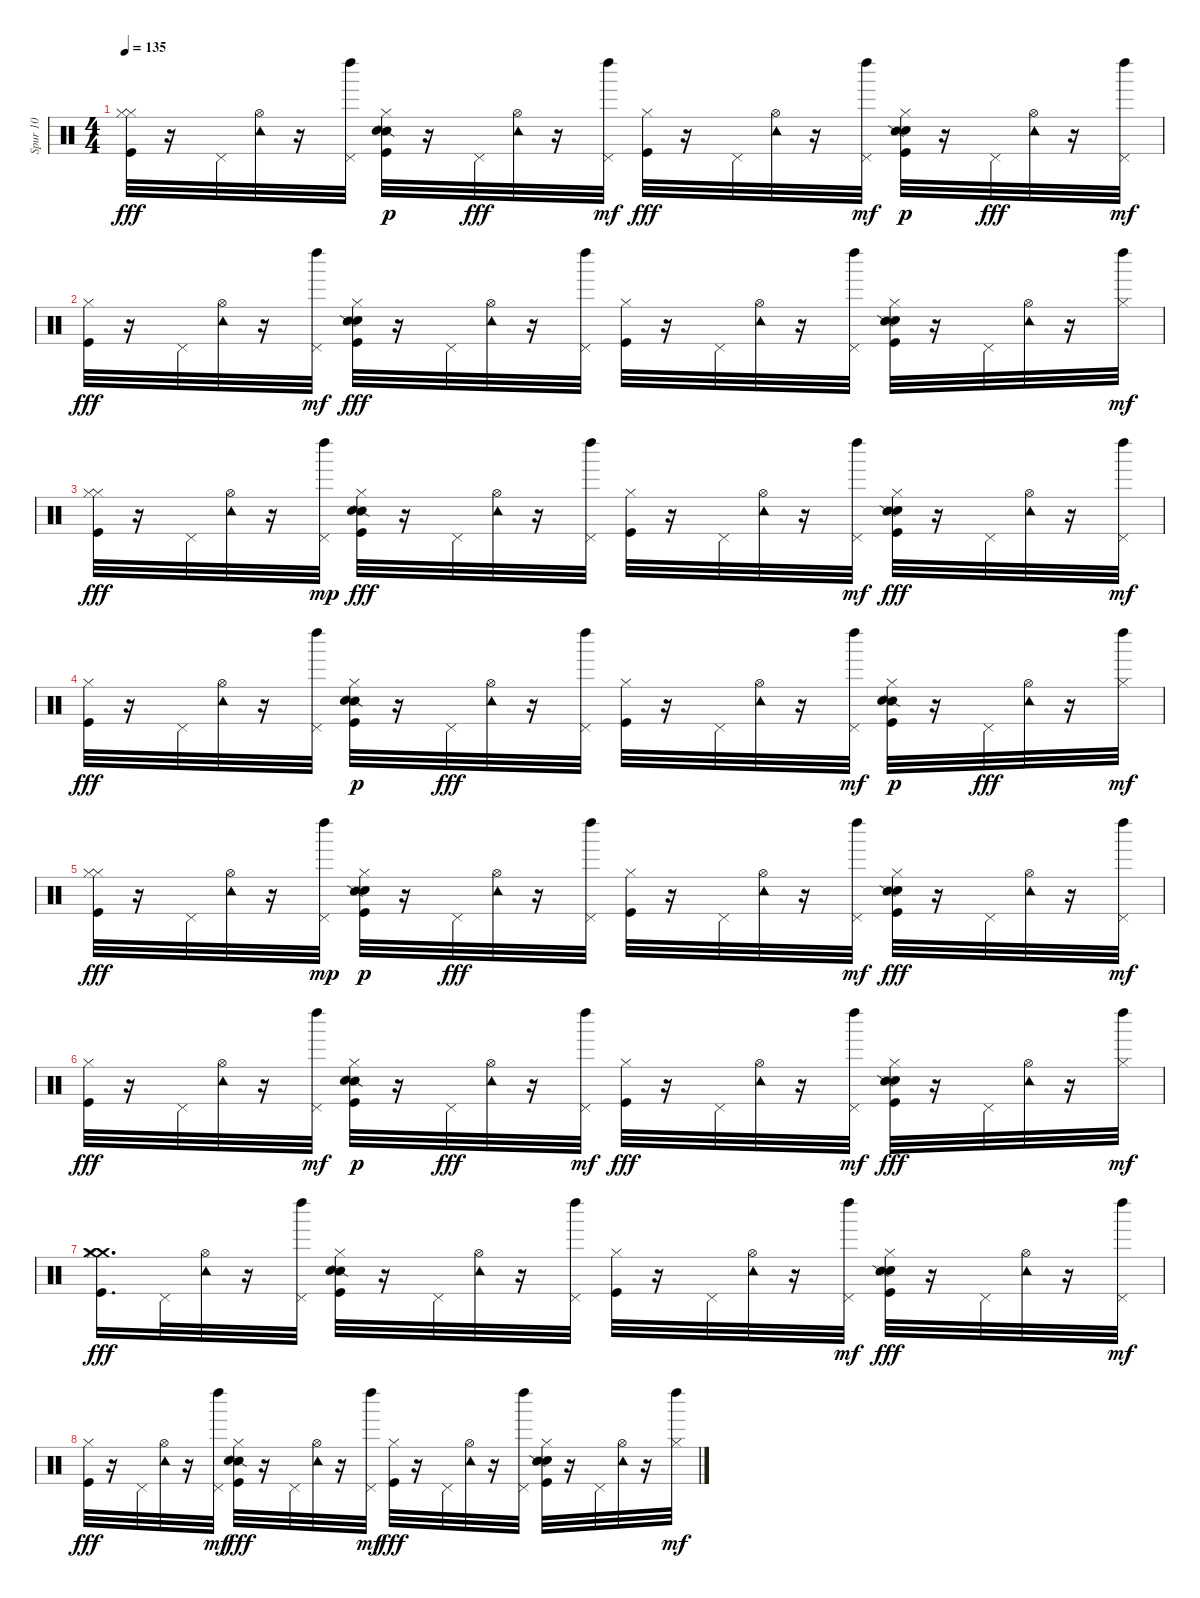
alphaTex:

\track ("Spur 10" "Spur 10") {instrument percussion}
\staff {score}
\articulation defaults
\ts (4 4)
\tempo 135
\clef neutral
\ks c
("Hi-Hat (closed)" "Kick (hit)" "Hi-Hat (closed)").32{dy fff} r.16 "Pedal Hi-Hat (hit)".32 ("Tambourine (hit)" "Hi-Hat (open)").32 r.16 ("Left Maraca (hit)" "Pedal Hi-Hat (hit)").32 ("Hi-Hat (closed)" "Snare (side stick) 2" "Kick (hit)" "Hand Clap (hit)").32{dy p} r.16 "Pedal Hi-Hat (hit)".32{dy fff} ("Tambourine (hit)" "Hi-Hat (open)").32 r.16 ("Pedal Hi-Hat (hit)" "Left Maraca (hit)").32{dy mf} ("Kick (hit)" "Hi-Hat (closed)").32{dy fff} r.16 "Pedal Hi-Hat (hit)".32 ("Tambourine (hit)" "Hi-Hat (open)").32 r.16 ("Pedal Hi-Hat (hit)" "Left Maraca (hit)").32{dy mf} ("Kick (hit)" "Hi-Hat (closed)" "Hand Clap (hit)" "Snare (side stick) 2").32{dy p} r.16 "Pedal Hi-Hat (hit)".32{dy fff} ("Hi-Hat (open)" "Tambourine (hit)").32 r.16 ("Left Maraca (hit)" "Pedal Hi-Hat (hit)").32{dy mf} |
("Hi-Hat (closed)" "Kick (hit)").32{dy fff} r.16 "Pedal Hi-Hat (hit)".32 ("Hi-Hat (open)" "Tambourine (hit)").32 r.16 ("Pedal Hi-Hat (hit)" "Left Maraca (hit)").32{dy mf} ("Hand Clap (hit)" "Kick (hit)" "Hi-Hat (closed)" "Snare (side stick) 2").32{dy fff} r.16 "Pedal Hi-Hat (hit)".32 ("Hi-Hat (open)" "Tambourine (hit)").32 r.16 ("Left Maraca (hit)" "Pedal Hi-Hat (hit)").32 ("Kick (hit)" "Hi-Hat (closed)").32 r.16 "Pedal Hi-Hat (hit)".32 ("Tambourine (hit)" "Hi-Hat (open)").32 r.16 ("Left Maraca (hit)" "Pedal Hi-Hat (hit)").32 ("Hand Clap (hit)" "Hi-Hat (closed)" "Snare (side stick) 2" "Kick (hit)").32 r.16 "Pedal Hi-Hat (hit)".32 ("Tambourine (hit)" "Hi-Hat (open)").32 r.16 ("Hi-Hat (closed)" "Left Maraca (hit)").32{dy mf} |
("Kick (hit)" "Hi-Hat (closed)" "Hi-Hat (closed)").32{dy fff} r.16 "Pedal Hi-Hat (hit)".32 ("Hi-Hat (open)" "Tambourine (hit)").32 r.16 ("Pedal Hi-Hat (hit)" "Left Maraca (hit)").32{dy mp} ("Snare (side stick) 2" "Hand Clap (hit)" "Hi-Hat (closed)" "Kick (hit)").32{dy fff} r.16 "Pedal Hi-Hat (hit)".32 ("Tambourine (hit)" "Hi-Hat (open)").32 r.16 ("Left Maraca (hit)" "Pedal Hi-Hat (hit)").32 ("Kick (hit)" "Hi-Hat (closed)").32 r.16 "Pedal Hi-Hat (hit)".32 ("Hi-Hat (open)" "Tambourine (hit)").32 r.16 ("Pedal Hi-Hat (hit)" "Left Maraca (hit)").32{dy mf} ("Hand Clap (hit)" "Snare (side stick) 2" "Kick (hit)" "Hi-Hat (closed)").32{dy fff} r.16 "Pedal Hi-Hat (hit)".32 ("Tambourine (hit)" "Hi-Hat (open)").32 r.16 ("Pedal Hi-Hat (hit)" "Left Maraca (hit)").32{dy mf} |
("Hi-Hat (closed)" "Kick (hit)").32{dy fff} r.16 "Pedal Hi-Hat (hit)".32 ("Tambourine (hit)" "Hi-Hat (open)").32 r.16 ("Left Maraca (hit)" "Pedal Hi-Hat (hit)").32 ("Snare (side stick) 2" "Kick (hit)" "Hi-Hat (closed)" "Hand Clap (hit)").32{dy p} r.16 "Pedal Hi-Hat (hit)".32{dy fff} ("Tambourine (hit)" "Hi-Hat (open)").32 r.16 ("Left Maraca (hit)" "Pedal Hi-Hat (hit)").32 ("Kick (hit)" "Hi-Hat (closed)").32 r.16 "Pedal Hi-Hat (hit)".32 ("Tambourine (hit)" "Hi-Hat (open)").32 r.16 ("Pedal Hi-Hat (hit)" "Left Maraca (hit)").32{dy mf} ("Snare (side stick) 2" "Kick (hit)" "Hi-Hat (closed)" "Hand Clap (hit)").32{dy p} r.16 "Pedal Hi-Hat (hit)".32{dy fff} ("Hi-Hat (open)" "Tambourine (hit)").32 r.16 ("Hi-Hat (closed)" "Left Maraca (hit)").32{dy mf} |
("Hi-Hat (closed)" "Kick (hit)" "Hi-Hat (closed)").32{dy fff} r.16 "Pedal Hi-Hat (hit)".32 ("Tambourine (hit)" "Hi-Hat (open)").32 r.16 ("Pedal Hi-Hat (hit)" "Left Maraca (hit)").32{dy mp} ("Kick (hit)" "Hi-Hat (closed)" "Hand Clap (hit)" "Snare (side stick) 2").32{dy p} r.16 "Pedal Hi-Hat (hit)".32{dy fff} ("Hi-Hat (open)" "Tambourine (hit)").32 r.16 ("Left Maraca (hit)" "Pedal Hi-Hat (hit)").32 ("Hi-Hat (closed)" "Kick (hit)").32 r.16 "Pedal Hi-Hat (hit)".32 ("Hi-Hat (open)" "Tambourine (hit)").32 r.16 ("Pedal Hi-Hat (hit)" "Left Maraca (hit)").32{dy mf} ("Kick (hit)" "Hand Clap (hit)" "Hi-Hat (closed)" "Snare (side stick) 2").32{dy fff} r.16 "Pedal Hi-Hat (hit)".32 ("Hi-Hat (open)" "Tambourine (hit)").32 r.16 ("Left Maraca (hit)" "Pedal Hi-Hat (hit)").32{dy mf} |
("Hi-Hat (closed)" "Kick (hit)").32{dy fff} r.16 "Pedal Hi-Hat (hit)".32 ("Tambourine (hit)" "Hi-Hat (open)").32 r.16 ("Pedal Hi-Hat (hit)" "Left Maraca (hit)").32{dy mf} ("Snare (side stick) 2" "Hi-Hat (closed)" "Kick (hit)" "Hand Clap (hit)").32{dy p} r.16 "Pedal Hi-Hat (hit)".32{dy fff} ("Tambourine (hit)" "Hi-Hat (open)").32 r.16 ("Pedal Hi-Hat (hit)" "Left Maraca (hit)").32{dy mf} ("Hi-Hat (closed)" "Kick (hit)").32{dy fff} r.16 "Pedal Hi-Hat (hit)".32 ("Hi-Hat (open)" "Tambourine (hit)").32 r.16 ("Pedal Hi-Hat (hit)" "Left Maraca (hit)").32{dy mf} ("Kick (hit)" "Hand Clap (hit)" "Snare (side stick) 2" "Hi-Hat (closed)").32{dy fff} r.16 "Pedal Hi-Hat (hit)".32 ("Tambourine (hit)" "Hi-Hat (open)").32 r.16 ("Hi-Hat (closed)" "Left Maraca (hit)").32{dy mf} |
("Kick (hit)" "Crash medium (hit)" "Hi-Hat (closed)" "Crash medium (hit)").16{d dy fff} "Pedal Hi-Hat (hit)".32 ("Hi-Hat (open)" "Tambourine (hit)").32 r.16 ("Left Maraca (hit)" "Pedal Hi-Hat (hit)").32 ("Hi-Hat (closed)" "Snare (side stick) 2" "Hand Clap (hit)" "Kick (hit)").32 r.16 "Pedal Hi-Hat (hit)".32 ("Hi-Hat (open)" "Tambourine (hit)").32 r.16 ("Left Maraca (hit)" "Pedal Hi-Hat (hit)").32 ("Kick (hit)" "Hi-Hat (closed)").32 r.16 "Pedal Hi-Hat (hit)".32 ("Tambourine (hit)" "Hi-Hat (open)").32 r.16 ("Left Maraca (hit)" "Pedal Hi-Hat (hit)").32{dy mf} ("Hand Clap (hit)" "Kick (hit)" "Hi-Hat (closed)" "Snare (side stick) 2").32{dy fff} r.16 "Pedal Hi-Hat (hit)".32 ("Hi-Hat (open)" "Tambourine (hit)").32 r.16 ("Left Maraca (hit)" "Pedal Hi-Hat (hit)").32{dy mf} |
("Hi-Hat (closed)" "Kick (hit)").32{dy fff} r.16 "Pedal Hi-Hat (hit)".32 ("Hi-Hat (open)" "Tambourine (hit)").32 r.16 ("Pedal Hi-Hat (hit)" "Left Maraca (hit)").32{dy mf} ("Snare (side stick) 2" "Kick (hit)" "Hand Clap (hit)" "Hi-Hat (closed)").32{dy fff} r.16 "Pedal Hi-Hat (hit)".32 ("Hi-Hat (open)" "Tambourine (hit)").32 r.16 ("Pedal Hi-Hat (hit)" "Left Maraca (hit)").32{dy mf} ("Hi-Hat (closed)" "Kick (hit)").32{dy fff} r.16 "Pedal Hi-Hat (hit)".32 ("Hi-Hat (open)" "Tambourine (hit)").32 r.16 ("Left Maraca (hit)" "Pedal Hi-Hat (hit)").32 ("Hand Clap (hit)" "Kick (hit)" "Hi-Hat (closed)" "Snare (side stick) 2").32 r.16 "Pedal Hi-Hat (hit)".32 ("Tambourine (hit)" "Hi-Hat (open)").32 r.16 ("Hi-Hat (closed)" "Left Maraca (hit)").32{dy mf}
